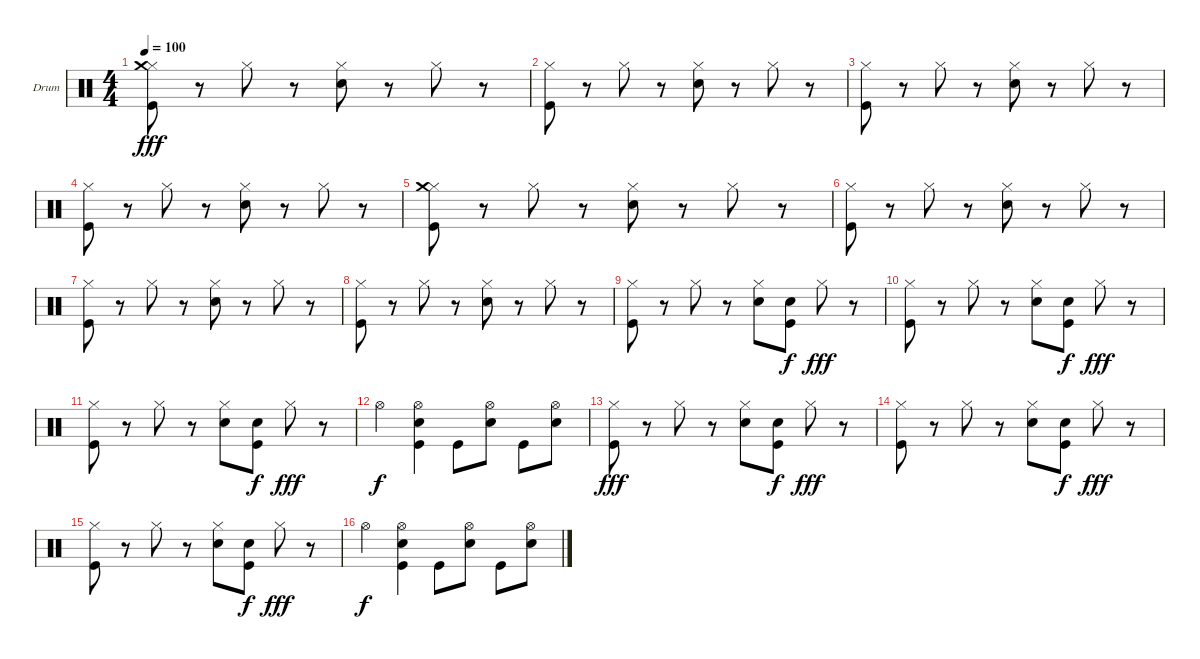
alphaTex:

\defaultSystemsLayout 4
\bracketExtendMode groupsimilarinstruments
\firstSystemTrackNameOrientation horizontal
\otherSystemsTrackNameOrientation horizontal
\track ("Drum" "Drum") {instrument percussion}
\staff {score}
\articulation defaults
\ts (4 4)
\tempo 100
\clef neutral
\scale
0.333333
\ks c
("Hi-Hat (closed)" "Crash medium (hit)" "Kick (hit)").8{dy fff} r.8 "Hi-Hat (closed)".8 r.8 ("Hi-Hat (closed)" "Snare (hit) 2").8 r.8 "Hi-Hat (closed)".8 r.8 |
\scale
0.333333 ("Hi-Hat (closed)" "Kick (hit)").8 r.8 "Hi-Hat (closed)".8 r.8 ("Hi-Hat (closed)" "Snare (hit) 2").8 r.8 "Hi-Hat (closed)".8 r.8 |
\scale
0.333333 ("Hi-Hat (closed)" "Kick (hit)").8 r.8 "Hi-Hat (closed)".8 r.8 ("Hi-Hat (closed)" "Snare (hit) 2").8 r.8 "Hi-Hat (closed)".8 r.8 |
\scale
0.333333 ("Hi-Hat (closed)" "Kick (hit)").8 r.8 "Hi-Hat (closed)".8 r.8 ("Hi-Hat (closed)" "Snare (hit) 2").8 r.8 "Hi-Hat (closed)".8 r.8 |
\scale
0.333333 ("Hi-Hat (closed)" "Crash medium (hit)" "Kick (hit)").8 r.8 "Hi-Hat (closed)".8 r.8 ("Hi-Hat (closed)" "Snare (hit) 2").8 r.8 "Hi-Hat (closed)".8 r.8 |
\scale
0.333333 ("Hi-Hat (closed)" "Kick (hit)").8 r.8 "Hi-Hat (closed)".8 r.8 ("Hi-Hat (closed)" "Snare (hit) 2").8 r.8 "Hi-Hat (closed)".8 r.8 |
\scale
0.333333 ("Hi-Hat (closed)" "Kick (hit)").8 r.8 "Hi-Hat (closed)".8 r.8 ("Hi-Hat (closed)" "Snare (hit) 2").8 r.8 "Hi-Hat (closed)".8 r.8 |
\scale
0.333333 ("Hi-Hat (closed)" "Kick (hit)").8 r.8 "Hi-Hat (closed)".8 r.8 ("Hi-Hat (closed)" "Snare (hit) 2").8 r.8 "Hi-Hat (closed)".8 r.8 |
\scale
0.333333 ("Hi-Hat (closed)" "Kick (hit)").8 r.8 "Hi-Hat (closed)".8 r.8 ("Hi-Hat (closed)" "Snare (hit) 2").8 ("Snare (hit) 2" "Kick (hit)").8{dy f} "Hi-Hat (closed)".8{dy fff} r.8 |
\scale
0.333333 ("Hi-Hat (closed)" "Kick (hit)").8 r.8 "Hi-Hat (closed)".8 r.8 ("Hi-Hat (closed)" "Snare (hit) 2").8 ("Snare (hit) 2" "Kick (hit)").8{dy f} "Hi-Hat (closed)".8{dy fff} r.8 |
\scale
0.333333 ("Hi-Hat (closed)" "Kick (hit)").8 r.8 "Hi-Hat (closed)".8 r.8 ("Hi-Hat (closed)" "Snare (hit) 2").8 ("Snare (hit) 2" "Kick (hit)").8{dy f} "Hi-Hat (closed)".8{dy fff} r.8 |
\scale
0.333333 "Hi-Hat (open)".4{dy f} ("Kick (hit)" "Snare (hit) 2" "Hi-Hat (open)").4 "Kick (hit)".8 ("Hi-Hat (open)" "Snare (hit) 2").8 "Kick (hit)".8 ("Snare (hit) 2" "Hi-Hat (open)").8 |
\scale
0.333333 ("Hi-Hat (closed)" "Kick (hit)").8{dy fff} r.8 "Hi-Hat (closed)".8 r.8 ("Hi-Hat (closed)" "Snare (hit) 2").8 ("Snare (hit) 2" "Kick (hit)").8{dy f} "Hi-Hat (closed)".8{dy fff} r.8 |
\scale
0.333333 ("Hi-Hat (closed)" "Kick (hit)").8 r.8 "Hi-Hat (closed)".8 r.8 ("Hi-Hat (closed)" "Snare (hit) 2").8 ("Snare (hit) 2" "Kick (hit)").8{dy f} "Hi-Hat (closed)".8{dy fff} r.8 |
\scale
0.333333 ("Hi-Hat (closed)" "Kick (hit)").8 r.8 "Hi-Hat (closed)".8 r.8 ("Hi-Hat (closed)" "Snare (hit) 2").8 ("Snare (hit) 2" "Kick (hit)").8{dy f} "Hi-Hat (closed)".8{dy fff} r.8 |
\scale
0.333333 "Hi-Hat (open)".4{dy f} ("Kick (hit)" "Snare (hit) 2" "Hi-Hat (open)").4 "Kick (hit)".8 ("Hi-Hat (open)" "Snare (hit) 2").8 "Kick (hit)".8 ("Snare (hit) 2" "Hi-Hat (open)").8
